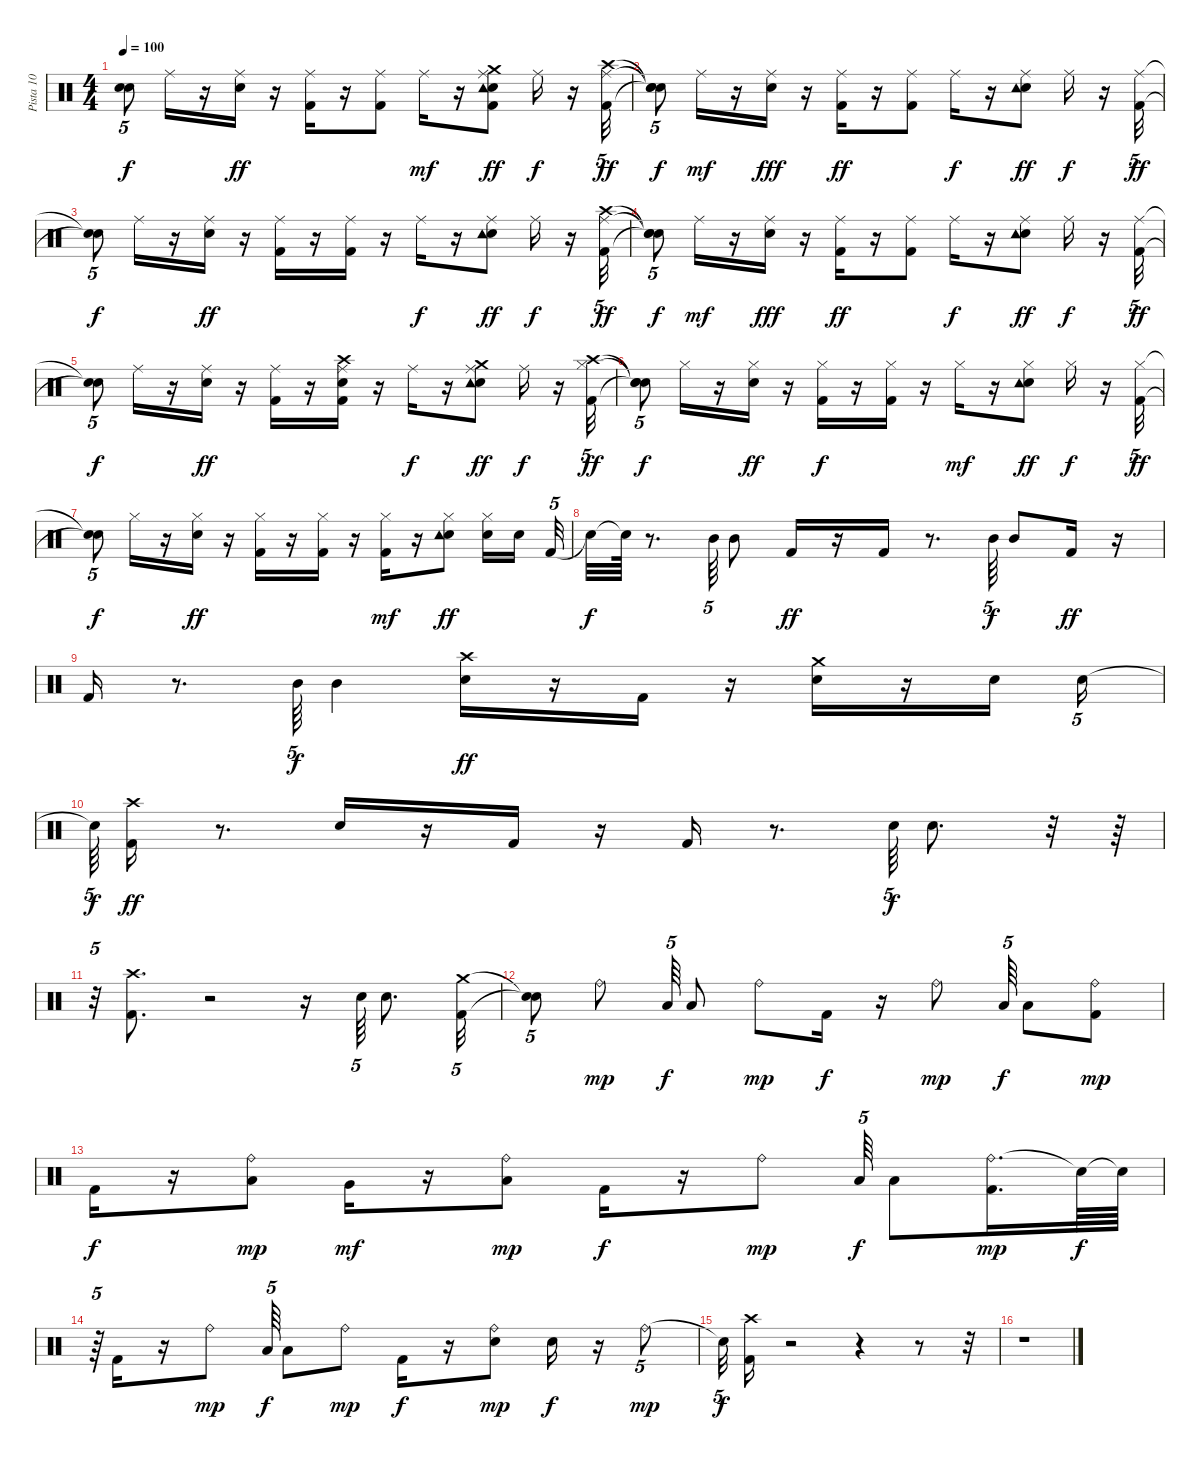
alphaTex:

\track ("Pista 10" "Pista 10") {instrument percussion}
\staff {score}
\articulation defaults
\ts (4 4)
\tempo 100
\clef neutral
\ks c
("Snare (hit)"{t} "Snare (hit)"{t}).8{tu (5 4) dy f} "Ride (middle)".16 r.16 ("Ride (middle)" "Snare (hit) 2").16{dy ff} r.16 ("Ride (middle)" "Kick (hit) 2").16 r.16 ("Ride (middle)" "Kick (hit) 2").8 "Ride (middle)".16{dy mf} r.16 ("Kick (hit) 2" "Crash medium (hit)" "Ride (middle)" "Snare (hit) 2" "Tambourine (hit)").8{dy ff} "Ride (middle)".16{dy f} r.16 ("Crash high (hit)" "Ride (middle)" "Kick (hit) 2").32{tu (5 4) dy ff} |
("Snare (hit)"{t} "Snare (hit)"{t} "Snare (hit)"{t}).8{tu (5 4) dy f} "Ride (middle)".16{dy mf} r.16 ("Ride (middle)" "Snare (hit) 2").16{dy fff} r.16 ("Ride (middle)" "Kick (hit) 2").16{dy ff} r.16 ("Ride (middle)" "Kick (hit) 2").8 "Ride (middle)".16{dy f} r.16 ("Ride (middle)" "Snare (hit) 2" "Tambourine (hit)").8{dy ff} "Ride (middle)".16{dy f} r.16 ("Ride (middle)" "Kick (hit) 2").32{tu (5 4) dy ff} |
("Snare (hit)"{t} "Snare (hit)"{t}).8{tu (5 4) dy f} "Ride (middle)".16 r.16 ("Ride (middle)" "Snare (hit) 2").16{dy ff} r.16 ("Ride (middle)" "Kick (hit) 2").16 r.16 ("Ride (middle)" "Kick (hit) 2").16 r.16 "Ride (middle)".16{dy f} r.16 ("Ride (middle)" "Snare (hit) 2" "Tambourine (hit)").8{dy ff} "Ride (middle)".16{dy f} r.16 ("Crash high (hit)" "Ride (middle)" "Kick (hit) 2").32{tu (5 4) dy ff} |
("Snare (hit)"{t} "Snare (hit)"{t} "Snare (hit)"{t}).8{tu (5 4) dy f} "Ride (middle)".16{dy mf} r.16 ("Ride (middle)" "Snare (hit) 2").16{dy fff} r.16 ("Ride (middle)" "Kick (hit) 2").16{dy ff} r.16 ("Ride (middle)" "Kick (hit) 2").8 "Ride (middle)".16{dy f} r.16 ("Ride (middle)" "Snare (hit) 2" "Tambourine (hit)").8{dy ff} "Ride (middle)".16{dy f} r.16 ("Ride (middle)" "Kick (hit) 2").32{tu (5 4) dy ff} |
("Snare (hit)"{t} "Snare (hit)"{t}).8{tu (5 4) dy f} "Ride (middle)".16 r.16 ("Ride (middle)" "Snare (hit) 2").16{dy ff} r.16 ("Ride (middle)" "Kick (hit) 2").16 r.16 ("Crash high (hit)" "Snare (hit) 2" "Ride (middle)" "Kick (hit) 2").16 r.16 "Ride (middle)".16{dy f} r.16 ("Crash medium (hit)" "Ride (middle)" "Snare (hit) 2" "Tambourine (hit)").8{dy ff} "Ride (middle)".16{dy f} r.16 ("Crash high (hit)" "Hi-Hat (closed)" "Kick (hit) 2").32{tu (5 4) dy ff} |
("Snare (hit)"{t} "Snare (hit)"{t} "Snare (hit)"{t}).8{tu (5 4) dy f} "Hi-Hat (closed)".16 r.16 ("Hi-Hat (closed)" "Snare (hit) 2").16{dy ff} r.16 ("Hi-Hat (closed)" "Kick (hit) 2").16{dy f} r.16 ("Hi-Hat (closed)" "Kick (hit) 2").16 r.16 "Hi-Hat (closed)".16{dy mf} r.16 ("Hi-Hat (closed)" "Snare (hit) 2" "Tambourine (hit)").8{dy ff} "Hi-Hat (closed)".16{dy f} r.16 ("Hi-Hat (closed)" "Kick (hit) 2").32{tu (5 4) dy ff} |
("Snare (hit)"{t} "Snare (hit)"{t}).8{tu (5 4) dy f} "Hi-Hat (closed)".16 r.16 ("Hi-Hat (closed)" "Snare (hit) 2").16{dy ff} r.16 ("Hi-Hat (closed)" "Kick (hit) 2").16 r.16 ("Hi-Hat (closed)" "Kick (hit) 2").16 r.16 ("Kick (hit) 2" "Hi-Hat (closed)").16{dy mf} r.16 ("Hi-Hat (closed)" "Snare (hit) 2" "Tambourine (hit)").8{dy ff} ("Snare (hit) 2" "Hi-Hat (closed)").16 "Snare (hit) 2".16{beam splitsecondary} "Kick (hit) 2".32{tu (5 4)} |
"Snare (hit)"{t}.32{dy f} "Snare (hit)"{t}.64 r.8{d} "Mid Tom (hit)".64{tu (5 4)} "Mid Tom (hit)".8 "Kick (hit) 2".16{dy ff} r.16 "Kick (hit) 2".16 r.8{d} "Mid Tom (hit)".64{tu (5 4) dy f} "Mid Tom (hit)".8 "Kick (hit) 2".16{dy ff} r.16 |
"Kick (hit) 2".16 r.8{d} "Mid Tom (hit)".64{tu (5 4) dy f} "Mid Tom (hit)".4 ("Crash high (hit)" "Snare (hit) 2").16{dy ff} r.16 "Kick (hit) 2".16 r.16 ("Crash medium (hit)" "Snare (hit) 2").16 r.16 "Snare (hit) 2".16 "Snare (hit) 2".16{tu (5 4)} |
"Snare (hit)"{t}.64{tu (5 4) dy f} ("Kick (hit) 2" "Crash high (hit)").16{dy ff} r.8{d} "Snare (hit) 2".16 r.16 "Kick (hit) 2".16 r.16 "Kick (hit) 2".16 r.8{d} "Snare (hit) 2".64{tu (5 4) dy f} "Snare (hit) 2".8{d} r.32 r.64 |
r.32{tu (5 4)} ("Kick (hit) 2" "Crash high (hit)").8{d} r.2 r.16 "Snare (hit) 2".64{tu (5 4)} "Snare (hit) 2".8{d} ("Kick (hit) 2" "Crash medium (hit)").32{tu (5 4)} |
("Snare (hit)"{t} "Snare (hit)"{t}).8{tu (5 4)} "Ride (bell)".8{dy mp} "Low Tom (hit)".64{tu (5 4) dy f} "Low Tom (hit)".8 "Ride (bell)".8{dy mp} "Kick (hit) 2".16{dy f} r.16 "Ride (bell)".8{dy mp} "Low Tom (hit)".64{tu (5 4) dy f} "Low Tom (hit)".8 ("Ride (bell)" "Kick (hit) 2").8{dy mp} |
"Kick (hit) 2".16{dy f} r.16 ("Ride (bell)" "Low Tom (hit)").8{dy mp} "Very Low Tom (hit)".16{dy mf} r.16 ("Ride (bell)" "Low Floor Tom (hit)").8{dy mp} "Kick (hit) 2".16{dy f} r.16 "Ride (bell)".8{dy mp} "Low Tom (hit)".64{tu (5 4) dy f} "Low Tom (hit)".8 ("Ride (bell)" "Kick (hit) 2").16{d dy mp} "Snare (hit)"{t}.64{dy f} "Snare (hit)"{t}.64 |
r.64{tu (5 4)} "Kick (hit) 2".16 r.16 "Ride (bell)".8{dy mp} "Low Tom (hit)".64{tu (5 4) dy f} "Low Tom (hit)".8 "Ride (bell)".8{dy mp} "Kick (hit) 2".16{dy f} r.16 ("Ride (bell)" "Snare (hit) 2").8{dy mp} "Snare (hit) 2".16{dy f} r.16 "Ride (bell)".8{tu (5 4) dy mp} |
"Snare (hit)"{t}.32{tu (5 4) dy f} ("Kick (hit) 2" "Crash high (hit)").16 r.2 r.4 r.8 r.32 |
r.1
